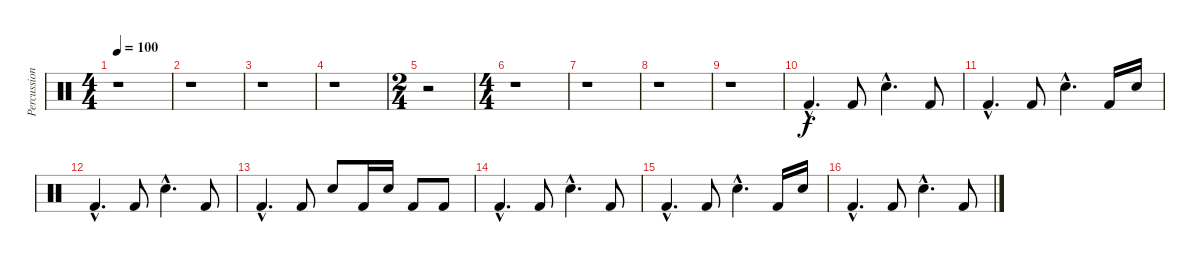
\track ("Percussioni" "Percussion") {instrument percussion}
\staff {score}
\articulation defaults
\ts (4 4)
\tempo 100
\clef neutral
\ks c
r.1{dy f} |
r.1 |
r.1 |
r.1 |
\ts (2 4)
r.2 |
\ts (4 4)
r.1 |
r.1 |
r.1 |
r.1 |
"Kick (hit) 2"{hac}.4{d} "Kick (hit) 2".8 "Snare (hit) 2"{hac}.4{d} "Kick (hit) 2".8 |
"Kick (hit) 2"{hac}.4{d} "Kick (hit) 2".8 "Snare (hit) 2"{hac}.4{d} "Kick (hit) 2".16 "Snare (hit) 2".16 |
"Kick (hit) 2"{hac}.4{d} "Kick (hit) 2".8 "Snare (hit) 2"{hac}.4{d} "Kick (hit) 2".8 |
"Kick (hit) 2"{hac}.4{d} "Kick (hit) 2".8 "Snare (hit) 2".8 "Kick (hit) 2".16 "Snare (hit) 2".16 "Kick (hit) 2".8 "Kick (hit) 2".8 |
"Kick (hit) 2"{hac}.4{d} "Kick (hit) 2".8 "Snare (hit) 2"{hac}.4{d} "Kick (hit) 2".8 |
"Kick (hit) 2"{hac}.4{d} "Kick (hit) 2".8 "Snare (hit) 2"{hac}.4{d} "Kick (hit) 2".16 "Snare (hit) 2".16 |
"Kick (hit) 2"{hac}.4{d} "Kick (hit) 2".8 "Snare (hit) 2"{hac}.4{d} "Kick (hit) 2".8
